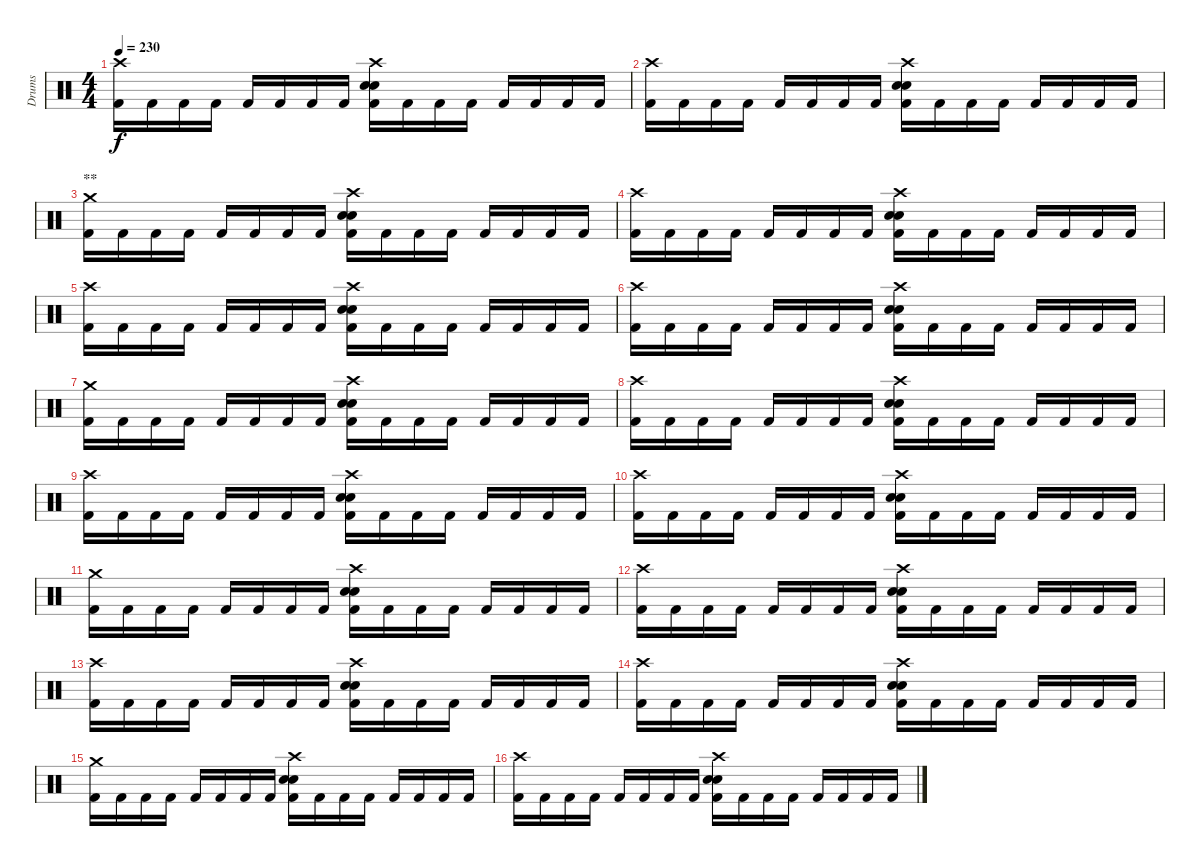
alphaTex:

\track ("Drums" "Drums") {instrument percussion}
\staff {score}
\articulation defaults
\ts (4 4)
\tempo 230
\clef neutral
\ks c
("Crash high (hit)" "Kick (hit) 2").16{dy f} "Kick (hit) 2".16 "Kick (hit) 2".16 "Kick (hit) 2".16 "Kick (hit) 2".16 "Kick (hit) 2".16 "Kick (hit) 2".16 "Kick (hit) 2".16 ("Crash high (hit)" "Electric Snare (hit)" "Electric Snare (hit)" "Kick (hit) 2").16 "Kick (hit) 2".16 "Kick (hit) 2".16 "Kick (hit) 2".16 "Kick (hit) 2".16 "Kick (hit) 2".16 "Kick (hit) 2".16 "Kick (hit) 2".16 |
("Crash high (hit)" "Kick (hit) 2").16 "Kick (hit) 2".16 "Kick (hit) 2".16 "Kick (hit) 2".16 "Kick (hit) 2".16 "Kick (hit) 2".16 "Kick (hit) 2".16 "Kick (hit) 2".16 ("Crash high (hit)" "Electric Snare (hit)" "Electric Snare (hit)" "Kick (hit) 2").16 "Kick (hit) 2".16 "Kick (hit) 2".16 "Kick (hit) 2".16 "Kick (hit) 2".16 "Kick (hit) 2".16 "Kick (hit) 2".16 "Kick (hit) 2".16 |
\section ("" "**")
("Crash medium (hit)" "Kick (hit) 2").16 "Kick (hit) 2".16 "Kick (hit) 2".16 "Kick (hit) 2".16 "Kick (hit) 2".16 "Kick (hit) 2".16 "Kick (hit) 2".16 "Kick (hit) 2".16 ("Crash high (hit)" "Electric Snare (hit)" "Electric Snare (hit)" "Kick (hit) 2").16 "Kick (hit) 2".16 "Kick (hit) 2".16 "Kick (hit) 2".16 "Kick (hit) 2".16 "Kick (hit) 2".16 "Kick (hit) 2".16 "Kick (hit) 2".16 |
("Crash high (hit)" "Kick (hit) 2").16 "Kick (hit) 2".16 "Kick (hit) 2".16 "Kick (hit) 2".16 "Kick (hit) 2".16 "Kick (hit) 2".16 "Kick (hit) 2".16 "Kick (hit) 2".16 ("Crash high (hit)" "Electric Snare (hit)" "Electric Snare (hit)" "Kick (hit) 2").16 "Kick (hit) 2".16 "Kick (hit) 2".16 "Kick (hit) 2".16 "Kick (hit) 2".16 "Kick (hit) 2".16 "Kick (hit) 2".16 "Kick (hit) 2".16 |
("Crash high (hit)" "Kick (hit) 2").16 "Kick (hit) 2".16 "Kick (hit) 2".16 "Kick (hit) 2".16 "Kick (hit) 2".16 "Kick (hit) 2".16 "Kick (hit) 2".16 "Kick (hit) 2".16 ("Crash high (hit)" "Electric Snare (hit)" "Electric Snare (hit)" "Kick (hit) 2").16 "Kick (hit) 2".16 "Kick (hit) 2".16 "Kick (hit) 2".16 "Kick (hit) 2".16 "Kick (hit) 2".16 "Kick (hit) 2".16 "Kick (hit) 2".16 |
("Crash high (hit)" "Kick (hit) 2").16 "Kick (hit) 2".16 "Kick (hit) 2".16 "Kick (hit) 2".16 "Kick (hit) 2".16 "Kick (hit) 2".16 "Kick (hit) 2".16 "Kick (hit) 2".16 ("Crash high (hit)" "Electric Snare (hit)" "Electric Snare (hit)" "Kick (hit) 2").16 "Kick (hit) 2".16 "Kick (hit) 2".16 "Kick (hit) 2".16 "Kick (hit) 2".16 "Kick (hit) 2".16 "Kick (hit) 2".16 "Kick (hit) 2".16 |
("Crash medium (hit)" "Kick (hit) 2").16 "Kick (hit) 2".16 "Kick (hit) 2".16 "Kick (hit) 2".16 "Kick (hit) 2".16 "Kick (hit) 2".16 "Kick (hit) 2".16 "Kick (hit) 2".16 ("Crash high (hit)" "Electric Snare (hit)" "Electric Snare (hit)" "Kick (hit) 2").16 "Kick (hit) 2".16 "Kick (hit) 2".16 "Kick (hit) 2".16 "Kick (hit) 2".16 "Kick (hit) 2".16 "Kick (hit) 2".16 "Kick (hit) 2".16 |
("Crash high (hit)" "Kick (hit) 2").16 "Kick (hit) 2".16 "Kick (hit) 2".16 "Kick (hit) 2".16 "Kick (hit) 2".16 "Kick (hit) 2".16 "Kick (hit) 2".16 "Kick (hit) 2".16 ("Crash high (hit)" "Electric Snare (hit)" "Electric Snare (hit)" "Kick (hit) 2").16 "Kick (hit) 2".16 "Kick (hit) 2".16 "Kick (hit) 2".16 "Kick (hit) 2".16 "Kick (hit) 2".16 "Kick (hit) 2".16 "Kick (hit) 2".16 |
("Crash high (hit)" "Kick (hit) 2").16 "Kick (hit) 2".16 "Kick (hit) 2".16 "Kick (hit) 2".16 "Kick (hit) 2".16 "Kick (hit) 2".16 "Kick (hit) 2".16 "Kick (hit) 2".16 ("Crash high (hit)" "Electric Snare (hit)" "Electric Snare (hit)" "Kick (hit) 2").16 "Kick (hit) 2".16 "Kick (hit) 2".16 "Kick (hit) 2".16 "Kick (hit) 2".16 "Kick (hit) 2".16 "Kick (hit) 2".16 "Kick (hit) 2".16 |
("Crash high (hit)" "Kick (hit) 2").16 "Kick (hit) 2".16 "Kick (hit) 2".16 "Kick (hit) 2".16 "Kick (hit) 2".16 "Kick (hit) 2".16 "Kick (hit) 2".16 "Kick (hit) 2".16 ("Crash high (hit)" "Electric Snare (hit)" "Electric Snare (hit)" "Kick (hit) 2").16 "Kick (hit) 2".16 "Kick (hit) 2".16 "Kick (hit) 2".16 "Kick (hit) 2".16 "Kick (hit) 2".16 "Kick (hit) 2".16 "Kick (hit) 2".16 |
("Crash medium (hit)" "Kick (hit) 2").16 "Kick (hit) 2".16 "Kick (hit) 2".16 "Kick (hit) 2".16 "Kick (hit) 2".16 "Kick (hit) 2".16 "Kick (hit) 2".16 "Kick (hit) 2".16 ("Crash high (hit)" "Electric Snare (hit)" "Electric Snare (hit)" "Kick (hit) 2").16 "Kick (hit) 2".16 "Kick (hit) 2".16 "Kick (hit) 2".16 "Kick (hit) 2".16 "Kick (hit) 2".16 "Kick (hit) 2".16 "Kick (hit) 2".16 |
("Crash high (hit)" "Kick (hit) 2").16 "Kick (hit) 2".16 "Kick (hit) 2".16 "Kick (hit) 2".16 "Kick (hit) 2".16 "Kick (hit) 2".16 "Kick (hit) 2".16 "Kick (hit) 2".16 ("Crash high (hit)" "Electric Snare (hit)" "Electric Snare (hit)" "Kick (hit) 2").16 "Kick (hit) 2".16 "Kick (hit) 2".16 "Kick (hit) 2".16 "Kick (hit) 2".16 "Kick (hit) 2".16 "Kick (hit) 2".16 "Kick (hit) 2".16 |
("Crash high (hit)" "Kick (hit) 2").16 "Kick (hit) 2".16 "Kick (hit) 2".16 "Kick (hit) 2".16 "Kick (hit) 2".16 "Kick (hit) 2".16 "Kick (hit) 2".16 "Kick (hit) 2".16 ("Crash high (hit)" "Electric Snare (hit)" "Electric Snare (hit)" "Kick (hit) 2").16 "Kick (hit) 2".16 "Kick (hit) 2".16 "Kick (hit) 2".16 "Kick (hit) 2".16 "Kick (hit) 2".16 "Kick (hit) 2".16 "Kick (hit) 2".16 |
("Crash high (hit)" "Kick (hit) 2").16 "Kick (hit) 2".16 "Kick (hit) 2".16 "Kick (hit) 2".16 "Kick (hit) 2".16 "Kick (hit) 2".16 "Kick (hit) 2".16 "Kick (hit) 2".16 ("Crash high (hit)" "Electric Snare (hit)" "Electric Snare (hit)" "Kick (hit) 2").16 "Kick (hit) 2".16 "Kick (hit) 2".16 "Kick (hit) 2".16 "Kick (hit) 2".16 "Kick (hit) 2".16 "Kick (hit) 2".16 "Kick (hit) 2".16 |
("Crash medium (hit)" "Kick (hit) 2").16 "Kick (hit) 2".16 "Kick (hit) 2".16 "Kick (hit) 2".16 "Kick (hit) 2".16 "Kick (hit) 2".16 "Kick (hit) 2".16 "Kick (hit) 2".16 ("Crash high (hit)" "Electric Snare (hit)" "Electric Snare (hit)" "Kick (hit) 2").16 "Kick (hit) 2".16 "Kick (hit) 2".16 "Kick (hit) 2".16 "Kick (hit) 2".16 "Kick (hit) 2".16 "Kick (hit) 2".16 "Kick (hit) 2".16 |
("Crash high (hit)" "Kick (hit) 2").16 "Kick (hit) 2".16 "Kick (hit) 2".16 "Kick (hit) 2".16 "Kick (hit) 2".16 "Kick (hit) 2".16 "Kick (hit) 2".16 "Kick (hit) 2".16 ("Crash high (hit)" "Electric Snare (hit)" "Electric Snare (hit)" "Kick (hit) 2").16 "Kick (hit) 2".16 "Kick (hit) 2".16 "Kick (hit) 2".16 "Kick (hit) 2".16 "Kick (hit) 2".16 "Kick (hit) 2".16 "Kick (hit) 2".16
